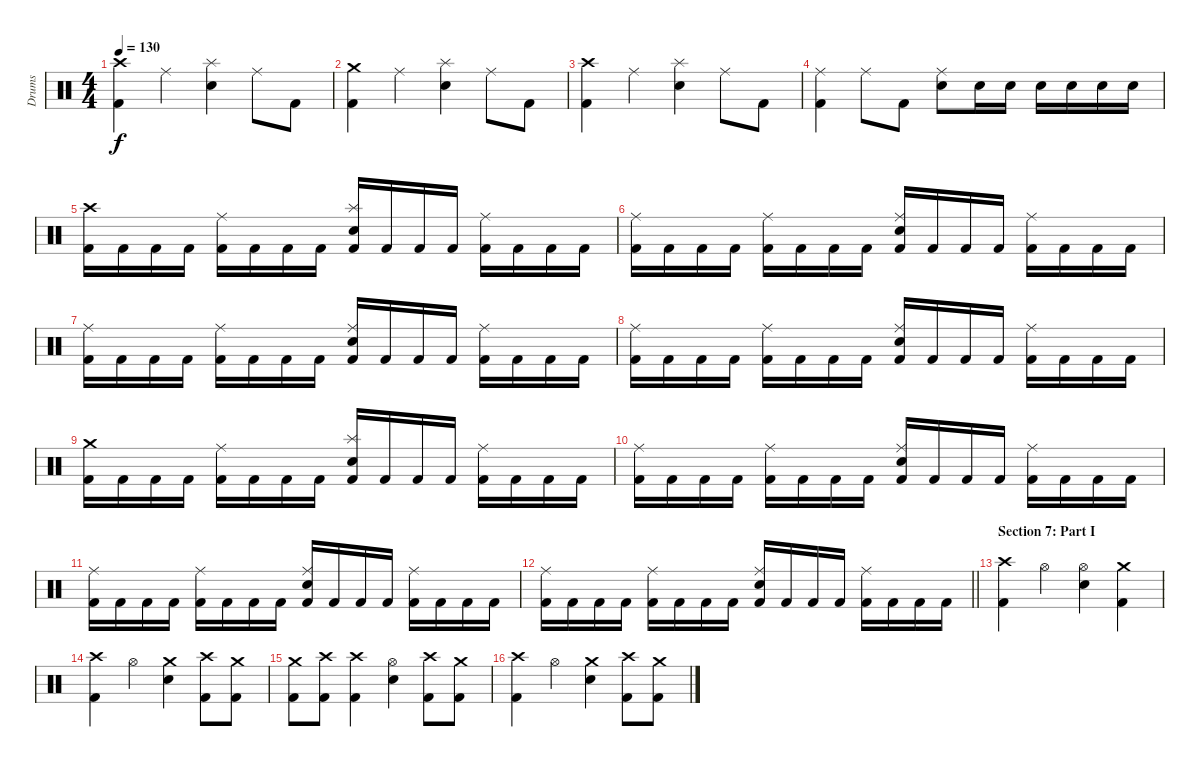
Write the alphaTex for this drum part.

\track ("Drums" "Drums") {instrument percussion}
\staff {score}
\articulation defaults
\ts (4 4)
\tempo 130
\clef neutral
\ks c
("Crash high (hit)" "Kick (hit) 2").4{dy f} "Ride (middle)".4 ("Splash (hit)" "Electric Snare (hit)").4 "Ride (middle)".8 "Kick (hit) 2".8 |
("Crash medium (hit)" "Kick (hit) 2").4 "Ride (middle)".4 ("Splash (hit)" "Electric Snare (hit)").4 "Ride (middle)".8 "Kick (hit) 2".8 |
("Crash high (hit)" "Kick (hit) 2").4 "Ride (middle)".4 ("Splash (hit)" "Electric Snare (hit)").4 "Ride (middle)".8 "Kick (hit) 2".8 |
("Ride (middle)" "Kick (hit) 2").4 "Ride (middle)".8 "Kick (hit) 2".8 ("Ride (middle)" "Electric Snare (hit)").8 "Electric Snare (hit)".16 "Electric Snare (hit)".16 "Electric Snare (hit)".16 "Electric Snare (hit)".16 "Electric Snare (hit)".16 "Electric Snare (hit)".16 |
("Crash high (hit)" "Kick (hit) 2").16 "Kick (hit) 2".16 "Kick (hit) 2".16 "Kick (hit) 2".16 ("Ride (middle)" "Kick (hit) 2").16 "Kick (hit) 2".16 "Kick (hit) 2".16 "Kick (hit) 2".16 ("Splash (hit)" "Electric Snare (hit)" "Kick (hit) 2").16 "Kick (hit) 2".16 "Kick (hit) 2".16 "Kick (hit) 2".16 ("Ride (middle)" "Kick (hit) 2").16 "Kick (hit) 2".16 "Kick (hit) 2".16 "Kick (hit) 2".16 |
("Ride (middle)" "Kick (hit) 2").16 "Kick (hit) 2".16 "Kick (hit) 2".16 "Kick (hit) 2".16 ("Ride (middle)" "Kick (hit) 2").16 "Kick (hit) 2".16 "Kick (hit) 2".16 "Kick (hit) 2".16 ("Ride (middle)" "Electric Snare (hit)" "Kick (hit) 2").16 "Kick (hit) 2".16 "Kick (hit) 2".16 "Kick (hit) 2".16 ("Ride (middle)" "Kick (hit) 2").16 "Kick (hit) 2".16 "Kick (hit) 2".16 "Kick (hit) 2".16 |
("Ride (middle)" "Kick (hit) 2").16 "Kick (hit) 2".16 "Kick (hit) 2".16 "Kick (hit) 2".16 ("Ride (middle)" "Kick (hit) 2").16 "Kick (hit) 2".16 "Kick (hit) 2".16 "Kick (hit) 2".16 ("Ride (middle)" "Electric Snare (hit)" "Kick (hit) 2").16 "Kick (hit) 2".16 "Kick (hit) 2".16 "Kick (hit) 2".16 ("Ride (middle)" "Kick (hit) 2").16 "Kick (hit) 2".16 "Kick (hit) 2".16 "Kick (hit) 2".16 |
("Ride (middle)" "Kick (hit) 2").16 "Kick (hit) 2".16 "Kick (hit) 2".16 "Kick (hit) 2".16 ("Ride (middle)" "Kick (hit) 2").16 "Kick (hit) 2".16 "Kick (hit) 2".16 "Kick (hit) 2".16 ("Ride (middle)" "Electric Snare (hit)" "Kick (hit) 2").16 "Kick (hit) 2".16 "Kick (hit) 2".16 "Kick (hit) 2".16 ("Ride (middle)" "Kick (hit) 2").16 "Kick (hit) 2".16 "Kick (hit) 2".16 "Kick (hit) 2".16 |
("Crash medium (hit)" "Kick (hit) 2").16 "Kick (hit) 2".16 "Kick (hit) 2".16 "Kick (hit) 2".16 ("Ride (middle)" "Kick (hit) 2").16 "Kick (hit) 2".16 "Kick (hit) 2".16 "Kick (hit) 2".16 ("Splash (hit)" "Electric Snare (hit)" "Kick (hit) 2").16 "Kick (hit) 2".16 "Kick (hit) 2".16 "Kick (hit) 2".16 ("Ride (middle)" "Kick (hit) 2").16 "Kick (hit) 2".16 "Kick (hit) 2".16 "Kick (hit) 2".16 |
("Ride (middle)" "Kick (hit) 2").16 "Kick (hit) 2".16 "Kick (hit) 2".16 "Kick (hit) 2".16 ("Ride (middle)" "Kick (hit) 2").16 "Kick (hit) 2".16 "Kick (hit) 2".16 "Kick (hit) 2".16 ("Ride (middle)" "Electric Snare (hit)" "Kick (hit) 2").16 "Kick (hit) 2".16 "Kick (hit) 2".16 "Kick (hit) 2".16 ("Ride (middle)" "Kick (hit) 2").16 "Kick (hit) 2".16 "Kick (hit) 2".16 "Kick (hit) 2".16 |
("Ride (middle)" "Kick (hit) 2").16 "Kick (hit) 2".16 "Kick (hit) 2".16 "Kick (hit) 2".16 ("Ride (middle)" "Kick (hit) 2").16 "Kick (hit) 2".16 "Kick (hit) 2".16 "Kick (hit) 2".16 ("Ride (middle)" "Electric Snare (hit)" "Kick (hit) 2").16 "Kick (hit) 2".16 "Kick (hit) 2".16 "Kick (hit) 2".16 ("Ride (middle)" "Kick (hit) 2").16 "Kick (hit) 2".16 "Kick (hit) 2".16 "Kick (hit) 2".16 |
\barLineRight lightlight
("Ride (middle)" "Kick (hit) 2").16 "Kick (hit) 2".16 "Kick (hit) 2".16 "Kick (hit) 2".16 ("Ride (middle)" "Kick (hit) 2").16 "Kick (hit) 2".16 "Kick (hit) 2".16 "Kick (hit) 2".16 ("Ride (middle)" "Electric Snare (hit)" "Kick (hit) 2").16 "Kick (hit) 2".16 "Kick (hit) 2".16 "Kick (hit) 2".16 ("Ride (middle)" "Kick (hit) 2").16 "Kick (hit) 2".16 "Kick (hit) 2".16 "Kick (hit) 2".16 |
\section ("" "Section 7: Part I")
("Crash high (hit)" "Kick (hit) 2").4 "Hi-Hat (open)".4 ("Hi-Hat (open)" "Electric Snare (hit)").4 ("Crash medium (hit)" "Kick (hit) 2").4 |
("Crash high (hit)" "Kick (hit) 2").4 "Hi-Hat (open)".4 ("Crash medium (hit)" "Electric Snare (hit)").4 ("Crash high (hit)" "Kick (hit) 2").8 ("Crash medium (hit)" "Kick (hit) 2").8 |
("Crash medium (hit)" "Kick (hit) 2").8 ("Crash high (hit)" "Kick (hit) 2").8 ("Crash high (hit)" "Kick (hit) 2").4 ("Hi-Hat (open)" "Electric Snare (hit)").4 ("Crash high (hit)" "Kick (hit) 2").8 ("Crash medium (hit)" "Kick (hit) 2").8 |
("Crash high (hit)" "Kick (hit) 2").4 "Hi-Hat (open)".4 ("Crash medium (hit)" "Electric Snare (hit)").4 ("Crash high (hit)" "Kick (hit) 2").8 ("Crash medium (hit)" "Kick (hit) 2").8
